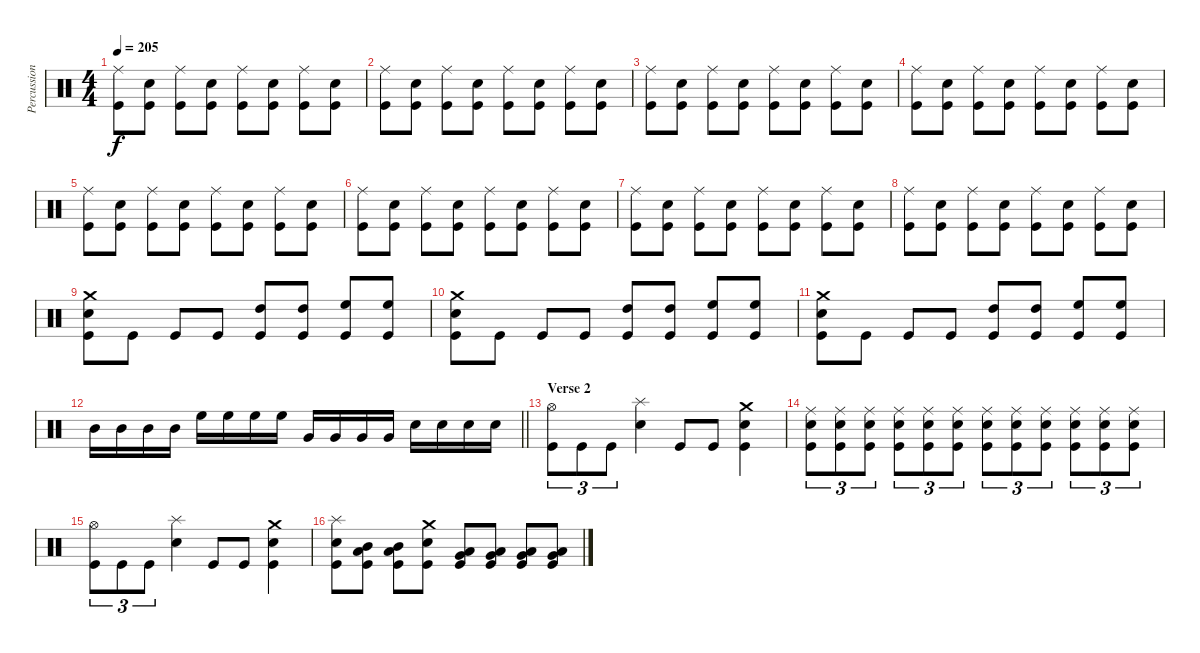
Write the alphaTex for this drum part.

\track ("Percussion" "Percussion") {instrument percussion}
\staff {score}
\articulation defaults
\ts (4 4)
\tempo 205
\clef neutral
\ks c
("Ride (middle)" "Kick (hit)").8{dy f} ("Electric Snare (hit)" "Kick (hit)").8 ("Ride (middle)" "Kick (hit)").8 ("Electric Snare (hit)" "Kick (hit)").8 ("Ride (middle)" "Kick (hit)").8 ("Electric Snare (hit)" "Kick (hit)").8 ("Ride (middle)" "Kick (hit)").8 ("Electric Snare (hit)" "Kick (hit)").8 |
("Ride (middle)" "Kick (hit)").8 ("Electric Snare (hit)" "Kick (hit)").8 ("Ride (middle)" "Kick (hit)").8 ("Electric Snare (hit)" "Kick (hit)").8 ("Ride (middle)" "Kick (hit)").8 ("Electric Snare (hit)" "Kick (hit)").8 ("Ride (middle)" "Kick (hit)").8 ("Electric Snare (hit)" "Kick (hit)").8 |
("Ride (middle)" "Kick (hit)").8 ("Electric Snare (hit)" "Kick (hit)").8 ("Ride (middle)" "Kick (hit)").8 ("Electric Snare (hit)" "Kick (hit)").8 ("Ride (middle)" "Kick (hit)").8 ("Electric Snare (hit)" "Kick (hit)").8 ("Ride (middle)" "Kick (hit)").8 ("Electric Snare (hit)" "Kick (hit)").8 |
("Ride (middle)" "Kick (hit)").8 ("Electric Snare (hit)" "Kick (hit)").8 ("Ride (middle)" "Kick (hit)").8 ("Electric Snare (hit)" "Kick (hit)").8 ("Ride (middle)" "Kick (hit)").8 ("Electric Snare (hit)" "Kick (hit)").8 ("Ride (middle)" "Kick (hit)").8 ("Electric Snare (hit)" "Kick (hit)").8 |
("Ride (middle)" "Kick (hit)").8 ("Electric Snare (hit)" "Kick (hit)").8 ("Ride (middle)" "Kick (hit)").8 ("Electric Snare (hit)" "Kick (hit)").8 ("Ride (middle)" "Kick (hit)").8 ("Electric Snare (hit)" "Kick (hit)").8 ("Ride (middle)" "Kick (hit)").8 ("Electric Snare (hit)" "Kick (hit)").8 |
("Ride (middle)" "Kick (hit)").8 ("Electric Snare (hit)" "Kick (hit)").8 ("Ride (middle)" "Kick (hit)").8 ("Electric Snare (hit)" "Kick (hit)").8 ("Ride (middle)" "Kick (hit)").8 ("Electric Snare (hit)" "Kick (hit)").8 ("Ride (middle)" "Kick (hit)").8 ("Electric Snare (hit)" "Kick (hit)").8 |
("Ride (middle)" "Kick (hit)").8 ("Electric Snare (hit)" "Kick (hit)").8 ("Ride (middle)" "Kick (hit)").8 ("Electric Snare (hit)" "Kick (hit)").8 ("Ride (middle)" "Kick (hit)").8 ("Electric Snare (hit)" "Kick (hit)").8 ("Ride (middle)" "Kick (hit)").8 ("Electric Snare (hit)" "Kick (hit)").8 |
("Ride (middle)" "Kick (hit)").8 ("Electric Snare (hit)" "Kick (hit)").8 ("Ride (middle)" "Kick (hit)").8 ("Electric Snare (hit)" "Kick (hit)").8 ("Ride (middle)" "Kick (hit)").8 ("Electric Snare (hit)" "Kick (hit)").8 ("Ride (middle)" "Kick (hit)").8 ("Electric Snare (hit)" "Kick (hit)").8 |
("Crash medium (hit)" "Electric Snare (hit)" "Kick (hit)").8 "Kick (hit)".8 "Kick (hit)".8 "Kick (hit)".8 ("High Tom (hit)" "Kick (hit)").8 ("High Tom (hit)" "Kick (hit)").8 ("High Floor Tom (hit)" "Kick (hit)").8 ("High Floor Tom (hit)" "Kick (hit)").8 |
("Crash medium (hit)" "Electric Snare (hit)" "Kick (hit)").8 "Kick (hit)".8 "Kick (hit)".8 "Kick (hit)".8 ("High Tom (hit)" "Kick (hit)").8 ("High Tom (hit)" "Kick (hit)").8 ("High Floor Tom (hit)" "Kick (hit)").8 ("High Floor Tom (hit)" "Kick (hit)").8 |
("Crash medium (hit)" "Electric Snare (hit)" "Kick (hit)").8 "Kick (hit)".8 "Kick (hit)".8 "Kick (hit)".8 ("High Tom (hit)" "Kick (hit)").8 ("High Tom (hit)" "Kick (hit)").8 ("High Floor Tom (hit)" "Kick (hit)").8 ("High Floor Tom (hit)" "Kick (hit)").8 |
\barLineRight lightlight "Mid Tom (hit)".16 "Mid Tom (hit)".16 "Mid Tom (hit)".16 "Mid Tom (hit)".16 "High Floor Tom (hit)".16 "High Floor Tom (hit)".16 "High Floor Tom (hit)".16 "High Floor Tom (hit)".16 "Very Low Tom (hit)".16 "Very Low Tom (hit)".16 "Very Low Tom (hit)".16 "Very Low Tom (hit)".16 "Electric Snare (hit)".16 "Electric Snare (hit)".16 "Electric Snare (hit)".16 "Electric Snare (hit)".16
|
\section ("" "Verse 2")
("Hi-Hat (open)" "Kick (hit)").8{tu (3 2)} "Kick (hit)".8{tu (3 2)} "Kick (hit)".8{tu (3 2)} ("Splash (hit)" "Electric Snare (hit)").4 "Kick (hit)".8 "Kick (hit)".8 ("Crash medium (hit)" "Electric Snare (hit)" "Kick (hit)").4 |
("Ride (middle)" "Electric Snare (hit)" "Kick (hit)").8{tu (3 2)} ("Ride (middle)" "Electric Snare (hit)" "Kick (hit)").8{tu (3 2)} ("Ride (middle)" "Electric Snare (hit)" "Kick (hit)").8{tu (3 2)} ("Ride (middle)" "Electric Snare (hit)" "Kick (hit)").8{tu (3 2)} ("Ride (middle)" "Electric Snare (hit)" "Kick (hit)").8{tu (3 2)} ("Ride (middle)" "Electric Snare (hit)" "Kick (hit)").8{tu (3 2)} ("Ride (middle)" "Electric Snare (hit)" "Kick (hit)").8{tu (3 2)} ("Ride (middle)" "Electric Snare (hit)" "Kick (hit)").8{tu (3 2)} ("Ride (middle)" "Electric Snare (hit)" "Kick (hit)").8{tu (3 2)} ("Ride (middle)" "Electric Snare (hit)" "Kick (hit)").8{tu (3 2)} ("Ride (middle)" "Electric Snare (hit)" "Kick (hit)").8{tu (3 2)} ("Ride (middle)" "Electric Snare (hit)" "Kick (hit)").8{tu (3 2)} |
("Hi-Hat (open)" "Kick (hit)").8{tu (3 2)} "Kick (hit)".8{tu (3 2)} "Kick (hit)".8{tu (3 2)} ("Splash (hit)" "Electric Snare (hit)").4 "Kick (hit)".8 "Kick (hit)".8 ("Crash medium (hit)" "Electric Snare (hit)" "Kick (hit)").4 |
("Splash (hit)" "Electric Snare (hit)" "Kick (hit)").8 ("Low Tom (hit)" "Mid Tom (hit)" "Kick (hit)").8 ("Low Tom (hit)" "Mid Tom (hit)" "Kick (hit)").8 ("Crash medium (hit)" "Electric Snare (hit)" "Kick (hit)").8 ("Low Tom (hit)" "Very Low Tom (hit)" "Kick (hit)").8 ("Low Tom (hit)" "Very Low Tom (hit)" "Kick (hit)").8 ("Low Tom (hit)" "Very Low Tom (hit)" "Kick (hit)").8 ("Low Tom (hit)" "Very Low Tom (hit)" "Kick (hit)").8
